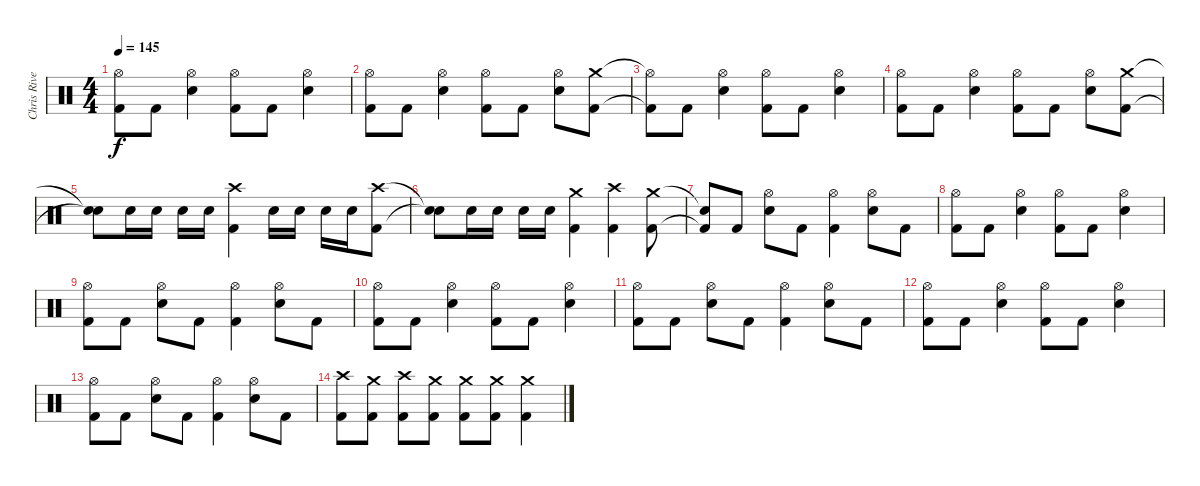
\track ("Chris Rivers" "Chris Rive") {instrument percussion}
\staff {score}
\articulation defaults
\ts (4 4)
\tempo 145
\clef neutral
\ks c
("Hi-Hat (open)" "Kick (hit) 2").8{dy f} "Kick (hit) 2".8 ("Hi-Hat (open)" "Electric Snare (hit)").4 ("Hi-Hat (open)" "Kick (hit) 2").8 "Kick (hit) 2".8 ("Hi-Hat (open)" "Electric Snare (hit)").4 |
("Hi-Hat (open)" "Kick (hit) 2").8 "Kick (hit) 2".8 ("Hi-Hat (open)" "Electric Snare (hit)").4 ("Hi-Hat (open)" "Kick (hit) 2").8 "Kick (hit) 2".8 ("Hi-Hat (open)" "Electric Snare (hit)").8 ("Crash medium (hit)" "Kick (hit) 2").8 |
("Hi-Hat (open)"{t} "Kick (hit) 2"{t}).8 "Kick (hit) 2".8 ("Hi-Hat (open)" "Electric Snare (hit)").4 ("Hi-Hat (open)" "Kick (hit) 2").8 "Kick (hit) 2".8 ("Hi-Hat (open)" "Electric Snare (hit)").4 |
("Hi-Hat (open)" "Kick (hit) 2").8 "Kick (hit) 2".8 ("Hi-Hat (open)" "Electric Snare (hit)").4 ("Hi-Hat (open)" "Kick (hit) 2").8 "Kick (hit) 2".8 ("Hi-Hat (open)" "Electric Snare (hit)").8 ("Crash medium (hit)" "Kick (hit) 2").8 |
("Snare (hit)"{t} "Snare (hit)"{t}).8 "Electric Snare (hit)".16 "Electric Snare (hit)".16 "Electric Snare (hit)".16 "Electric Snare (hit)".16 ("Crash high (hit)" "Kick (hit) 2").4 "Electric Snare (hit)".16 "Electric Snare (hit)".16 "Electric Snare (hit)".16 "Electric Snare (hit)".16 ("Crash high (hit)" "Kick (hit) 2").8 |
("Snare (hit)"{t} "Snare (hit)"{t}).8 "Electric Snare (hit)".16 "Electric Snare (hit)".16 "Electric Snare (hit)".16 "Electric Snare (hit)".16 ("Crash medium (hit)" "Kick (hit) 2").4 ("Crash high (hit)" "Kick (hit) 2").4 ("Crash medium (hit)" "Kick (hit) 2").8 |
("Snare (hit)"{t} "Kick (hit) 2"{t}).8 "Kick (hit) 2".8 ("Hi-Hat (open)" "Electric Snare (hit)").8 "Kick (hit) 2".8 ("Hi-Hat (open)" "Kick (hit) 2").4 ("Hi-Hat (open)" "Electric Snare (hit)").8 "Kick (hit) 2".8 |
("Hi-Hat (open)" "Kick (hit) 2").8 "Kick (hit) 2".8 ("Hi-Hat (open)" "Electric Snare (hit)").4 ("Hi-Hat (open)" "Kick (hit) 2").8 "Kick (hit) 2".8 ("Hi-Hat (open)" "Electric Snare (hit)").4 |
("Hi-Hat (open)" "Kick (hit) 2").8 "Kick (hit) 2".8 ("Hi-Hat (open)" "Electric Snare (hit)").8 "Kick (hit) 2".8 ("Hi-Hat (open)" "Kick (hit) 2").4 ("Hi-Hat (open)" "Electric Snare (hit)").8 "Kick (hit) 2".8 |
("Hi-Hat (open)" "Kick (hit) 2").8 "Kick (hit) 2".8 ("Hi-Hat (open)" "Electric Snare (hit)").4 ("Hi-Hat (open)" "Kick (hit) 2").8 "Kick (hit) 2".8 ("Hi-Hat (open)" "Electric Snare (hit)").4 |
("Hi-Hat (open)" "Kick (hit) 2").8 "Kick (hit) 2".8 ("Hi-Hat (open)" "Electric Snare (hit)").8 "Kick (hit) 2".8 ("Hi-Hat (open)" "Kick (hit) 2").4 ("Hi-Hat (open)" "Electric Snare (hit)").8 "Kick (hit) 2".8 |
("Hi-Hat (open)" "Kick (hit) 2").8 "Kick (hit) 2".8 ("Hi-Hat (open)" "Electric Snare (hit)").4 ("Hi-Hat (open)" "Kick (hit) 2").8 "Kick (hit) 2".8 ("Hi-Hat (open)" "Electric Snare (hit)").4 |
("Hi-Hat (open)" "Kick (hit) 2").8 "Kick (hit) 2".8 ("Hi-Hat (open)" "Electric Snare (hit)").8 "Kick (hit) 2".8 ("Hi-Hat (open)" "Kick (hit) 2").4 ("Hi-Hat (open)" "Electric Snare (hit)").8 "Kick (hit) 2".8 |
("Crash high (hit)" "Kick (hit) 2").8 ("Crash medium (hit)" "Kick (hit) 2").8 ("Crash high (hit)" "Kick (hit) 2").8 ("Crash medium (hit)" "Kick (hit) 2").8 ("Crash medium (hit)" "Kick (hit) 2").8 ("Crash medium (hit)" "Kick (hit) 2").8 ("Crash medium (hit)" "Kick (hit) 2").4
